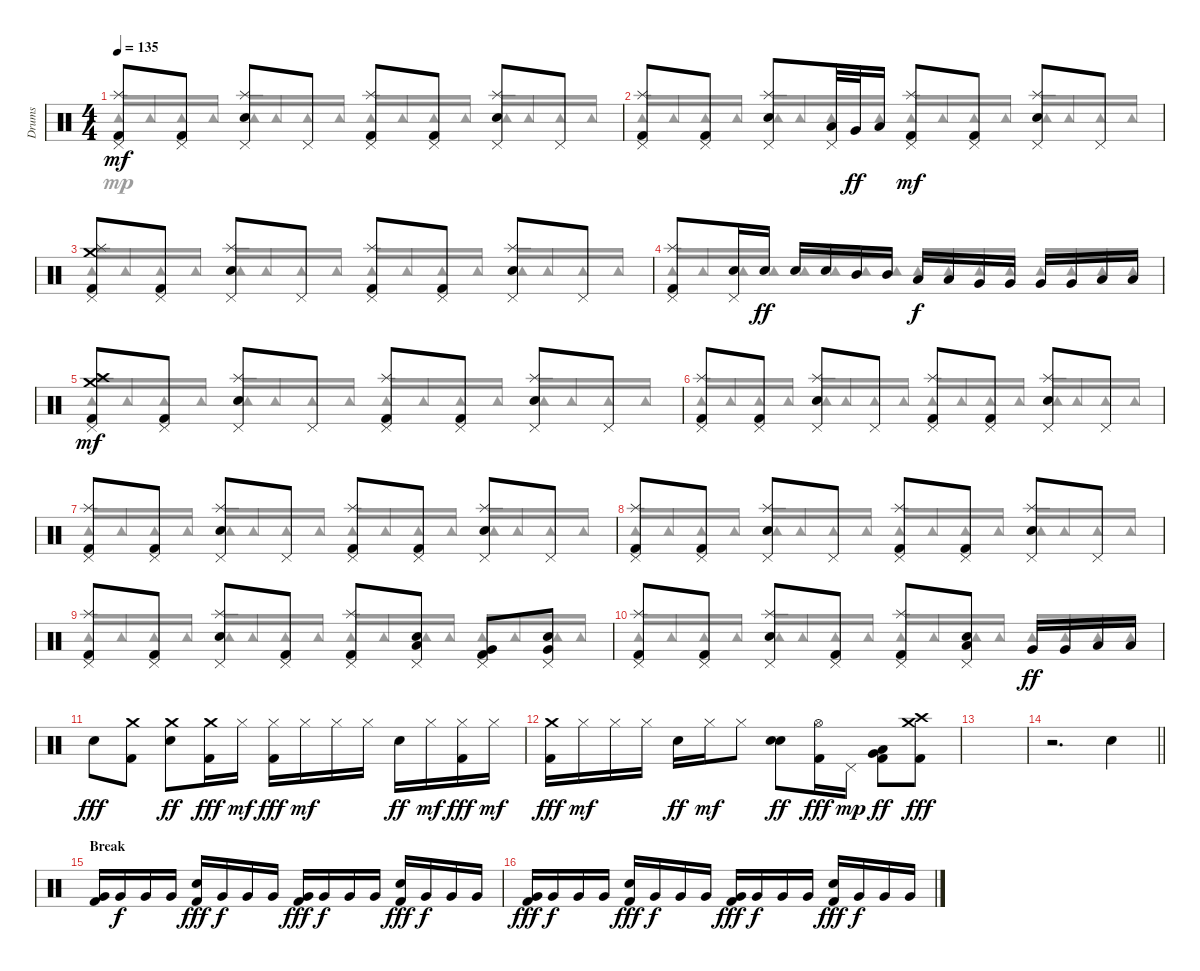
\track ("Drums" "Drums") {instrument percussion}
\staff {score}
\articulation defaults
\voice
\ts (4 4)
\tempo 135
\clef neutral
\ks c
("Splash (hit)" "Kick (hit) 2" "Pedal Hi-Hat (hit)").8{dy mf} ("Kick (hit) 2" "Pedal Hi-Hat (hit)").8 ("Splash (hit)" "Snare (hit) 2" "Pedal Hi-Hat (hit)").8 "Pedal Hi-Hat (hit)".8 ("Splash (hit)" "Kick (hit) 2" "Pedal Hi-Hat (hit)").8 ("Kick (hit) 2" "Pedal Hi-Hat (hit)").8 ("Splash (hit)" "Snare (hit) 2" "Pedal Hi-Hat (hit)").8 "Pedal Hi-Hat (hit)".8 |
("Splash (hit)" "Kick (hit) 2" "Pedal Hi-Hat (hit)").8 ("Kick (hit) 2" "Pedal Hi-Hat (hit)").8 ("Splash (hit)" "Snare (hit) 2" "Pedal Hi-Hat (hit)").8 ("Low Tom (hit)" "Pedal Hi-Hat (hit)").32 "Very Low Tom (hit)".32{dy ff} "Low Floor Tom (hit)".16 ("Splash (hit)" "Kick (hit) 2" "Pedal Hi-Hat (hit)").8{dy mf} ("Kick (hit) 2" "Pedal Hi-Hat (hit)").8 ("Splash (hit)" "Snare (hit) 2" "Pedal Hi-Hat (hit)").8 "Pedal Hi-Hat (hit)".8 |
("Splash (hit)" "Crash medium (hit)" "Kick (hit) 2" "Pedal Hi-Hat (hit)").8 ("Kick (hit) 2" "Pedal Hi-Hat (hit)").8 ("Splash (hit)" "Snare (hit) 2" "Pedal Hi-Hat (hit)").8 "Pedal Hi-Hat (hit)".8 ("Splash (hit)" "Kick (hit) 2" "Pedal Hi-Hat (hit)").8 ("Kick (hit) 2" "Pedal Hi-Hat (hit)").8 ("Splash (hit)" "Snare (hit) 2" "Pedal Hi-Hat (hit)").8 "Pedal Hi-Hat (hit)".8 |
("Splash (hit)" "Kick (hit) 2" "Pedal Hi-Hat (hit)").8 ("Electric Snare (hit)" "Pedal Hi-Hat (hit)").16 "Electric Snare (hit)".16{dy ff} "Snare (hit) 2".16 "Snare (hit) 2".16 "Mid Tom (hit)".16 "Mid Tom (hit)".16 "Low Tom (hit)".16{dy f} "Low Tom (hit)".16 "Very Low Tom (hit)".16 "Very Low Tom (hit)".16 "Very Low Tom (hit)".16 "Very Low Tom (hit)".16 "Low Floor Tom (hit)".16 "Low Floor Tom (hit)".16 |
("Crash high (hit)" "Crash medium (hit)" "Kick (hit) 2" "Pedal Hi-Hat (hit)").8{dy mf} ("Kick (hit) 2" "Pedal Hi-Hat (hit)").8 ("Splash (hit)" "Snare (hit) 2" "Pedal Hi-Hat (hit)").8 "Pedal Hi-Hat (hit)".8 ("Splash (hit)" "Kick (hit) 2" "Pedal Hi-Hat (hit)").8 ("Kick (hit) 2" "Pedal Hi-Hat (hit)").8 ("Splash (hit)" "Snare (hit) 2" "Pedal Hi-Hat (hit)").8 "Pedal Hi-Hat (hit)".8 |
("Splash (hit)" "Kick (hit) 2" "Pedal Hi-Hat (hit)").8 ("Kick (hit) 2" "Pedal Hi-Hat (hit)").8 ("Splash (hit)" "Snare (hit) 2" "Pedal Hi-Hat (hit)").8 "Pedal Hi-Hat (hit)".8 ("Splash (hit)" "Kick (hit) 2" "Pedal Hi-Hat (hit)").8 ("Kick (hit) 2" "Pedal Hi-Hat (hit)").8 ("Splash (hit)" "Snare (hit) 2" "Pedal Hi-Hat (hit)").8 "Pedal Hi-Hat (hit)".8 |
("Splash (hit)" "Kick (hit) 2" "Pedal Hi-Hat (hit)").8 ("Kick (hit) 2" "Pedal Hi-Hat (hit)").8 ("Splash (hit)" "Snare (hit) 2" "Pedal Hi-Hat (hit)").8 "Pedal Hi-Hat (hit)".8 ("Splash (hit)" "Kick (hit) 2" "Pedal Hi-Hat (hit)").8 ("Kick (hit) 2" "Pedal Hi-Hat (hit)").8 ("Splash (hit)" "Snare (hit) 2" "Pedal Hi-Hat (hit)").8 "Pedal Hi-Hat (hit)".8 |
("Splash (hit)" "Kick (hit) 2" "Pedal Hi-Hat (hit)").8 ("Kick (hit) 2" "Pedal Hi-Hat (hit)").8 ("Splash (hit)" "Snare (hit) 2" "Pedal Hi-Hat (hit)").8 "Pedal Hi-Hat (hit)".8 ("Splash (hit)" "Kick (hit) 2" "Pedal Hi-Hat (hit)").8 ("Kick (hit) 2" "Pedal Hi-Hat (hit)").8 ("Splash (hit)" "Snare (hit) 2" "Pedal Hi-Hat (hit)").8 "Pedal Hi-Hat (hit)".8 |
("Splash (hit)" "Kick (hit) 2" "Pedal Hi-Hat (hit)").8 ("Kick (hit) 2" "Pedal Hi-Hat (hit)").8 ("Splash (hit)" "Snare (hit) 2" "Pedal Hi-Hat (hit)").8 ("Kick (hit) 2" "Pedal Hi-Hat (hit)").8 ("Splash (hit)" "Kick (hit) 2" "Pedal Hi-Hat (hit)").8 ("Low Tom (hit)" "Snare (hit) 2" "Pedal Hi-Hat (hit)").8 ("Very Low Tom (hit)" "Kick (hit) 2" "Pedal Hi-Hat (hit)").8 ("Very Low Tom (hit)" "Snare (hit) 2" "Pedal Hi-Hat (hit)").8 |
("Splash (hit)" "Kick (hit) 2" "Pedal Hi-Hat (hit)").8 ("Kick (hit) 2" "Pedal Hi-Hat (hit)").8 ("Splash (hit)" "Snare (hit) 2" "Pedal Hi-Hat (hit)").8 ("Kick (hit) 2" "Pedal Hi-Hat (hit)").8 ("Splash (hit)" "Kick (hit) 2" "Pedal Hi-Hat (hit)").8 ("Low Tom (hit)" "Snare (hit) 2" "Pedal Hi-Hat (hit)").8 "Very Low Tom (hit)".16{dy ff} "Very Low Tom (hit)".16 "Low Floor Tom (hit)".16 "Low Floor Tom (hit)".16 |
"Snare (hit) 2".8{dy fff} ("Crash medium (hit)" "Kick (hit) 2").8 ("Crash medium (hit)" "Snare (hit) 2").8{dy ff} ("Crash medium (hit)" "Kick (hit) 2").16{dy fff} "Hi-Hat (closed)".16{dy mf} ("Hi-Hat (closed)" "Kick (hit) 2").16{dy fff} "Hi-Hat (closed)".16{dy mf} "Hi-Hat (closed)".16 "Hi-Hat (closed)".16 "Snare (hit) 2".16{dy ff} "Hi-Hat (closed)".16{dy mf} ("Hi-Hat (closed)" "Kick (hit) 2").16{dy fff} "Hi-Hat (closed)".16{dy mf} |
("Crash medium (hit)" "Kick (hit) 2").16{dy fff} "Hi-Hat (closed)".16{dy mf} "Hi-Hat (closed)".16 "Hi-Hat (closed)".16 "Snare (hit) 2".16{dy ff} "Hi-Hat (closed)".16{dy mf} "Hi-Hat (closed)".8 ("Snare (hit) 2" "Snare (hit) 2").8{bu 120 dy ff} ("Hi-Hat (open)" "Kick (hit) 2").16{dy fff} "Pedal Hi-Hat (hit)".16{dy mp} ("Very Low Tom (hit)" "Low Floor Tom (hit)" "Kick (hit) 2").8{dy ff} ("Crash medium (hit)" "Crash high (hit)" "Kick (hit) 2").8{dy fff} |
|
\barLineRight lightlight
r.2{d} "Snare (hit) 2".4 |
\section ("" "Break")
("Very Low Tom (hit)" "Kick (hit) 2").16 "Very Low Tom (hit)".16{dy f} "Very Low Tom (hit)".16 "Very Low Tom (hit)".16 ("Snare (hit) 2" "Kick (hit) 2").16{dy fff} "Very Low Tom (hit)".16{dy f} "Very Low Tom (hit)".16 "Very Low Tom (hit)".16 ("Very Low Tom (hit)" "Kick (hit) 2").16{dy fff} "Very Low Tom (hit)".16{dy f} "Very Low Tom (hit)".16 "Very Low Tom (hit)".16 ("Snare (hit) 2" "Kick (hit) 2").16{dy fff} "Very Low Tom (hit)".16{dy f} "Very Low Tom (hit)".16 "Very Low Tom (hit)".16 |
("Very Low Tom (hit)" "Kick (hit) 2").16{dy fff} "Very Low Tom (hit)".16{dy f} "Very Low Tom (hit)".16 "Very Low Tom (hit)".16 ("Snare (hit) 2" "Kick (hit) 2").16{dy fff} "Very Low Tom (hit)".16{dy f} "Very Low Tom (hit)".16 "Very Low Tom (hit)".16 ("Very Low Tom (hit)" "Kick (hit) 2").16{dy fff} "Very Low Tom (hit)".16{dy f} "Very Low Tom (hit)".16 "Very Low Tom (hit)".16 ("Snare (hit) 2" "Kick (hit) 2").16{dy fff} "Very Low Tom (hit)".16{dy f} "Very Low Tom (hit)".16 "Very Low Tom (hit)".16
\voice
\clef neutral
\ottava regular
\simile none
\ks c "Tambourine (hit)".16{dy mp beam Up} "Tambourine (hit)".16{beam Up} "Tambourine (hit)".16{beam Up} "Tambourine (hit)".16{beam Up} "Tambourine (hit)".16{beam Up} "Tambourine (hit)".16{beam Up} "Tambourine (hit)".16{beam Up} "Tambourine (hit)".16{beam Up} "Tambourine (hit)".16{beam Up} "Tambourine (hit)".16{beam Up} "Tambourine (hit)".16{beam Up} "Tambourine (hit)".16{beam Up} "Tambourine (hit)".16{beam Up} "Tambourine (hit)".16{beam Up} "Tambourine (hit)".16{beam Up} "Tambourine (hit)".16{beam Up}
|
"Tambourine (hit)".16{beam Up} "Tambourine (hit)".16{beam Up} "Tambourine (hit)".16{beam Up} "Tambourine (hit)".16{beam Up} "Tambourine (hit)".16{beam Up} "Tambourine (hit)".16{beam Up} "Tambourine (hit)".16{beam Up} "Tambourine (hit)".16{beam Up} "Tambourine (hit)".16{beam Up} "Tambourine (hit)".16{beam Up} "Tambourine (hit)".16{beam Up} "Tambourine (hit)".16{beam Up} "Tambourine (hit)".16{beam Up} "Tambourine (hit)".16{beam Up} "Tambourine (hit)".16{beam Up} "Tambourine (hit)".16{beam Up} |
"Tambourine (hit)".16{beam Up} "Tambourine (hit)".16{beam Up} "Tambourine (hit)".16{beam Up} "Tambourine (hit)".16{beam Up} "Tambourine (hit)".16{beam Up} "Tambourine (hit)".16{beam Up} "Tambourine (hit)".16{beam Up} "Tambourine (hit)".16{beam Up} "Tambourine (hit)".16{beam Up} "Tambourine (hit)".16{beam Up} "Tambourine (hit)".16{beam Up} "Tambourine (hit)".16{beam Up} "Tambourine (hit)".16{beam Up} "Tambourine (hit)".16{beam Up} "Tambourine (hit)".16{beam Up} "Tambourine (hit)".16{beam Up} |
"Tambourine (hit)".16{beam Up} "Tambourine (hit)".16{beam Up} "Tambourine (hit)".16{beam Up} "Tambourine (hit)".16{beam Up} "Tambourine (hit)".16{beam Up} "Tambourine (hit)".16{beam Up} "Tambourine (hit)".16{beam Up} "Tambourine (hit)".16{beam Up} "Tambourine (hit)".16{beam Up} "Tambourine (hit)".16{beam Up} "Tambourine (hit)".16{beam Up} "Tambourine (hit)".16{beam Up} "Tambourine (hit)".16{beam Up} "Tambourine (hit)".16{beam Up} "Tambourine (hit)".16{beam Up} "Tambourine (hit)".16{beam Up} |
"Tambourine (hit)".16{beam Up} "Tambourine (hit)".16{beam Up} "Tambourine (hit)".16{beam Up} "Tambourine (hit)".16{beam Up} "Tambourine (hit)".16{beam Up} "Tambourine (hit)".16{beam Up} "Tambourine (hit)".16{beam Up} "Tambourine (hit)".16{beam Up} "Tambourine (hit)".16{beam Up} "Tambourine (hit)".16{beam Up} "Tambourine (hit)".16{beam Up} "Tambourine (hit)".16{beam Up} "Tambourine (hit)".16{beam Up} "Tambourine (hit)".16{beam Up} "Tambourine (hit)".16{beam Up} "Tambourine (hit)".16{beam Up} |
"Tambourine (hit)".16{beam Up} "Tambourine (hit)".16{beam Up} "Tambourine (hit)".16{beam Up} "Tambourine (hit)".16{beam Up} "Tambourine (hit)".16{beam Up} "Tambourine (hit)".16{beam Up} "Tambourine (hit)".16{beam Up} "Tambourine (hit)".16{beam Up} "Tambourine (hit)".16{beam Up} "Tambourine (hit)".16{beam Up} "Tambourine (hit)".16{beam Up} "Tambourine (hit)".16{beam Up} "Tambourine (hit)".16{beam Up} "Tambourine (hit)".16{beam Up} "Tambourine (hit)".16{beam Up} "Tambourine (hit)".16{beam Up} |
"Tambourine (hit)".16{beam Up} "Tambourine (hit)".16{beam Up} "Tambourine (hit)".16{beam Up} "Tambourine (hit)".16{beam Up} "Tambourine (hit)".16{beam Up} "Tambourine (hit)".16{beam Up} "Tambourine (hit)".16{beam Up} "Tambourine (hit)".16{beam Up} "Tambourine (hit)".16{beam Up} "Tambourine (hit)".16{beam Up} "Tambourine (hit)".16{beam Up} "Tambourine (hit)".16{beam Up} "Tambourine (hit)".16{beam Up} "Tambourine (hit)".16{beam Up} "Tambourine (hit)".16{beam Up} "Tambourine (hit)".16{beam Up} |
"Tambourine (hit)".16{beam Up} "Tambourine (hit)".16{beam Up} "Tambourine (hit)".16{beam Up} "Tambourine (hit)".16{beam Up} "Tambourine (hit)".16{beam Up} "Tambourine (hit)".16{beam Up} "Tambourine (hit)".16{beam Up} "Tambourine (hit)".16{beam Up} "Tambourine (hit)".16{beam Up} "Tambourine (hit)".16{beam Up} "Tambourine (hit)".16{beam Up} "Tambourine (hit)".16{beam Up} "Tambourine (hit)".16{beam Up} "Tambourine (hit)".16{beam Up} "Tambourine (hit)".16{beam Up} "Tambourine (hit)".16{beam Up} |
"Tambourine (hit)".16{beam Up} "Tambourine (hit)".16{beam Up} "Tambourine (hit)".16{beam Up} "Tambourine (hit)".16{beam Up} "Tambourine (hit)".16{beam Up} "Tambourine (hit)".16{beam Up} "Tambourine (hit)".16{beam Up} "Tambourine (hit)".16{beam Up} "Tambourine (hit)".16{beam Up} "Tambourine (hit)".16{beam Up} "Tambourine (hit)".16{beam Up} "Tambourine (hit)".16{beam Up} "Tambourine (hit)".16{beam Up} "Tambourine (hit)".16{beam Up} "Tambourine (hit)".16{beam Up} "Tambourine (hit)".16{beam Up} |
"Tambourine (hit)".16{beam Up} "Tambourine (hit)".16{beam Up} "Tambourine (hit)".16{beam Up} "Tambourine (hit)".16{beam Up} "Tambourine (hit)".16{beam Up} "Tambourine (hit)".16{beam Up} "Tambourine (hit)".16{beam Up} "Tambourine (hit)".16{beam Up} "Tambourine (hit)".16{beam Up} "Tambourine (hit)".16{beam Up} "Tambourine (hit)".16{beam Up} "Tambourine (hit)".16{beam Up} "Tambourine (hit)".16{beam Up} "Tambourine (hit)".16{beam Up} "Tambourine (hit)".16{beam Up} "Tambourine (hit)".16{beam Up} |
|
|
|
\barLineRight lightlight
|
|
